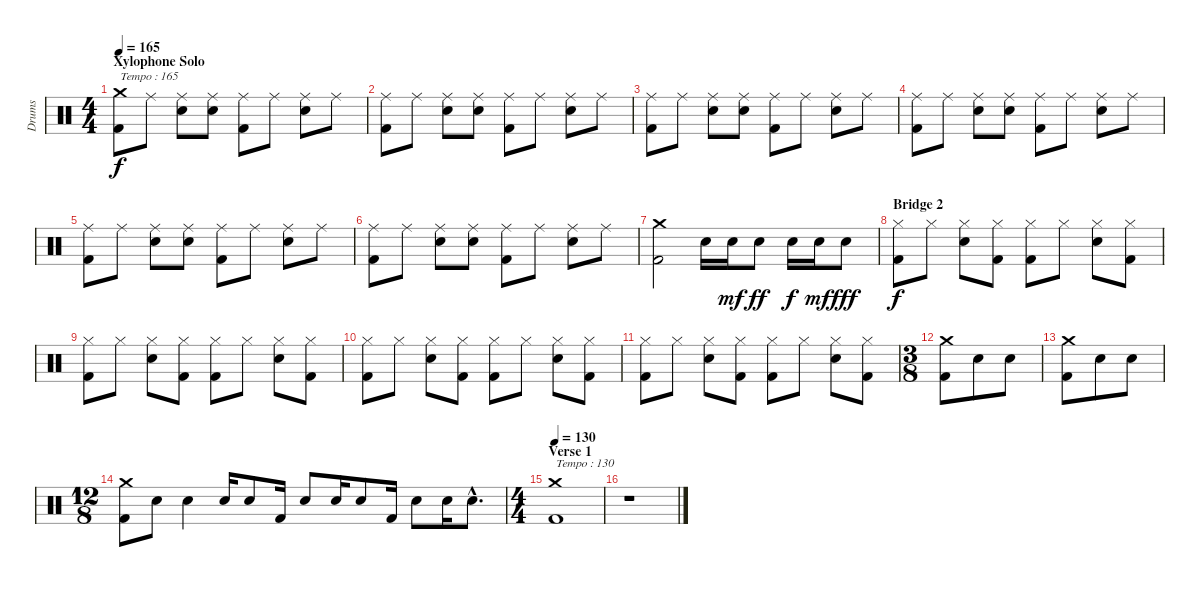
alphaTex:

\track ("Drums" "Drums") {instrument percussion}
\staff {score}
\articulation defaults
\ts (4 4)
\section ("" "Xylophone Solo")
\tempo 165
\clef neutral
\ks c
("Crash medium (hit)" "Kick (hit) 2").8{txt "Tempo : 165" dy f} "Ride (middle)".8 ("Ride (middle)" "Electric Snare (hit)").8 ("Ride (middle)" "Electric Snare (hit)").8 ("Ride (middle)" "Kick (hit) 2").8 "Ride (middle)".8 ("Ride (middle)" "Electric Snare (hit)").8 "Ride (middle)".8 |
("Ride (middle)" "Kick (hit) 2").8 "Ride (middle)".8 ("Ride (middle)" "Electric Snare (hit)").8 ("Ride (middle)" "Electric Snare (hit)").8 ("Ride (middle)" "Kick (hit) 2").8 "Ride (middle)".8 ("Ride (middle)" "Electric Snare (hit)").8 "Ride (middle)".8 |
("Ride (middle)" "Kick (hit) 2").8 "Ride (middle)".8 ("Ride (middle)" "Electric Snare (hit)").8 ("Ride (middle)" "Electric Snare (hit)").8 ("Ride (middle)" "Kick (hit) 2").8 "Ride (middle)".8 ("Ride (middle)" "Electric Snare (hit)").8 "Ride (middle)".8 |
("Ride (middle)" "Kick (hit) 2").8 "Ride (middle)".8 ("Ride (middle)" "Electric Snare (hit)").8 ("Ride (middle)" "Electric Snare (hit)").8 ("Ride (middle)" "Kick (hit) 2").8 "Ride (middle)".8 ("Ride (middle)" "Electric Snare (hit)").8 "Ride (middle)".8 |
("Ride (middle)" "Kick (hit) 2").8 "Ride (middle)".8 ("Ride (middle)" "Electric Snare (hit)").8 ("Ride (middle)" "Electric Snare (hit)").8 ("Ride (middle)" "Kick (hit) 2").8 "Ride (middle)".8 ("Ride (middle)" "Electric Snare (hit)").8 "Ride (middle)".8 |
("Ride (middle)" "Kick (hit) 2").8 "Ride (middle)".8 ("Ride (middle)" "Electric Snare (hit)").8 ("Ride (middle)" "Electric Snare (hit)").8 ("Ride (middle)" "Kick (hit) 2").8 "Ride (middle)".8 ("Ride (middle)" "Electric Snare (hit)").8 "Ride (middle)".8 |
("Crash medium (hit)" "Kick (hit) 2").2 "Snare (hit) 2".16 "Snare (hit) 2".16{dy mf} "Snare (hit) 2".8{dy ff} "Snare (hit) 2".16{dy f} "Snare (hit) 2".16{dy mf} "Snare (hit) 2".8{dy fff} |
\section ("" "Bridge 2")
("Hi-Hat (closed)" "Kick (hit) 2").8{dy f volume 10} "Hi-Hat (closed)".8 ("Hi-Hat (closed)" "Electric Snare (hit)").8 ("Hi-Hat (closed)" "Kick (hit) 2").8 ("Hi-Hat (closed)" "Kick (hit) 2").8 "Hi-Hat (closed)".8 ("Hi-Hat (closed)" "Electric Snare (hit)").8 ("Hi-Hat (closed)" "Kick (hit) 2").8 |
("Hi-Hat (closed)" "Kick (hit) 2").8 "Hi-Hat (closed)".8 ("Hi-Hat (closed)" "Electric Snare (hit)").8 ("Hi-Hat (closed)" "Kick (hit) 2").8 ("Hi-Hat (closed)" "Kick (hit) 2").8 "Hi-Hat (closed)".8 ("Hi-Hat (closed)" "Electric Snare (hit)").8 ("Hi-Hat (closed)" "Kick (hit) 2").8 |
("Hi-Hat (closed)" "Kick (hit) 2").8 "Hi-Hat (closed)".8 ("Hi-Hat (closed)" "Electric Snare (hit)").8 ("Hi-Hat (closed)" "Kick (hit) 2").8 ("Hi-Hat (closed)" "Kick (hit) 2").8 "Hi-Hat (closed)".8 ("Hi-Hat (closed)" "Electric Snare (hit)").8 ("Hi-Hat (closed)" "Kick (hit) 2").8 |
("Hi-Hat (closed)" "Kick (hit) 2").8 "Hi-Hat (closed)".8 ("Hi-Hat (closed)" "Electric Snare (hit)").8 ("Hi-Hat (closed)" "Kick (hit) 2").8 ("Hi-Hat (closed)" "Kick (hit) 2").8 "Hi-Hat (closed)".8 ("Hi-Hat (closed)" "Electric Snare (hit)").8 ("Hi-Hat (closed)" "Kick (hit) 2").8 |
\ts (3 8)
("Crash medium (hit)" "Kick (hit) 2").8 "Electric Snare (hit)".8 "Electric Snare (hit)".8 |
("Crash medium (hit)" "Kick (hit) 2").8 "Electric Snare (hit)".8 "Electric Snare (hit)".8 |
\ts (12 8)
("Crash medium (hit)" "Kick (hit) 2").8 "Electric Snare (hit)".8 "Electric Snare (hit)".4 "Electric Snare (hit)".16 "Electric Snare (hit)".8 "Kick (hit) 2".16 "Electric Snare (hit)".8 "Electric Snare (hit)".16 "Electric Snare (hit)".8 "Kick (hit) 2".16 "Electric Snare (hit)".8 "Electric Snare (hit)".16 "Electric Snare (hit)"{hac}.8{d} |
\ts (4 4)
\section ("" "Verse 1")
\tempo 130
("Crash medium (hit)" "Kick (hit) 2").1{txt "Tempo : 130"} |
r.1
